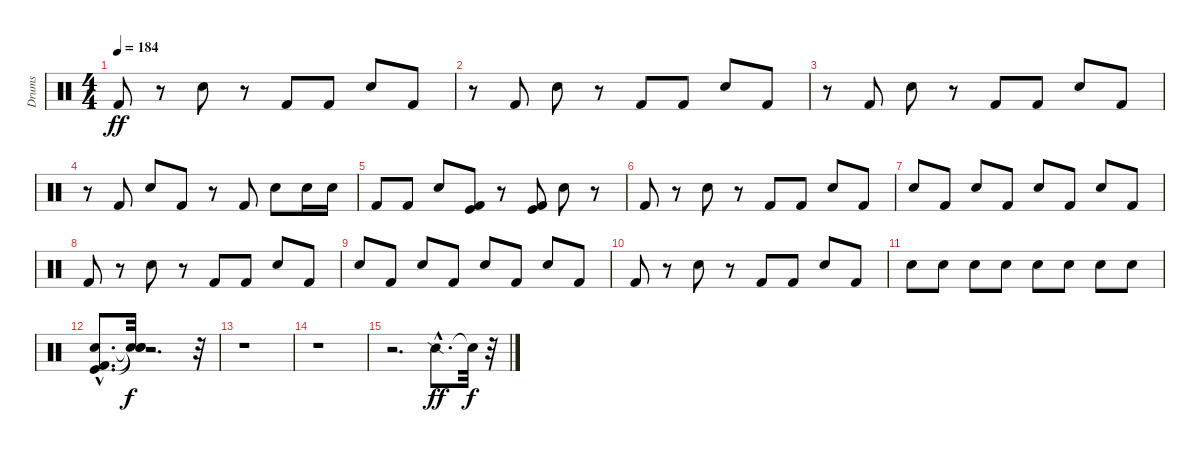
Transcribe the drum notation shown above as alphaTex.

\track ("Drums" "Drums") {instrument percussion}
\staff {score}
\articulation defaults
\ts (4 4)
\tempo 184
\clef neutral
\ks c "Kick (hit) 2".8{dy ff}
r.8 "Electric Snare (hit)".8 r.8 "Kick (hit) 2".8 "Kick (hit) 2".8 "Electric Snare (hit)".8 "Kick (hit) 2".8 |
r.8 "Kick (hit) 2".8 "Electric Snare (hit)".8 r.8 "Kick (hit) 2".8 "Kick (hit) 2".8 "Electric Snare (hit)".8 "Kick (hit) 2".8 |
r.8 "Kick (hit) 2".8 "Electric Snare (hit)".8 r.8 "Kick (hit) 2".8 "Kick (hit) 2".8 "Electric Snare (hit)".8 "Kick (hit) 2".8 |
r.8 "Kick (hit) 2".8 "Electric Snare (hit)".8 "Kick (hit) 2".8 r.8 "Kick (hit) 2".8 "Electric Snare (hit)".8 "Electric Snare (hit)".16 "Electric Snare (hit)".16 |
"Kick (hit) 2".8 "Kick (hit) 2".8 "Electric Snare (hit)".8 ("Kick (hit)" "Kick (hit) 2").8 r.8 ("Kick (hit)" "Kick (hit) 2").8 "Electric Snare (hit)".8 r.8 |
"Kick (hit) 2".8 r.8 "Electric Snare (hit)".8 r.8 "Kick (hit) 2".8 "Kick (hit) 2".8 "Electric Snare (hit)".8 "Kick (hit) 2".8 |
"Electric Snare (hit)".8 "Kick (hit) 2".8 "Electric Snare (hit)".8 "Kick (hit) 2".8 "Electric Snare (hit)".8 "Kick (hit) 2".8 "Electric Snare (hit)".8 "Kick (hit) 2".8 |
"Kick (hit) 2".8 r.8 "Electric Snare (hit)".8 r.8 "Kick (hit) 2".8 "Kick (hit) 2".8 "Electric Snare (hit)".8 "Kick (hit) 2".8 |
"Electric Snare (hit)".8 "Kick (hit) 2".8 "Electric Snare (hit)".8 "Kick (hit) 2".8 "Electric Snare (hit)".8 "Kick (hit) 2".8 "Electric Snare (hit)".8 "Kick (hit) 2".8 |
"Kick (hit) 2".8 r.8 "Electric Snare (hit)".8 r.8 "Kick (hit) 2".8 "Kick (hit) 2".8 "Electric Snare (hit)".8 "Kick (hit) 2".8 |
"Electric Snare (hit)".8 "Electric Snare (hit)".8 "Electric Snare (hit)".8 "Electric Snare (hit)".8 "Electric Snare (hit)".8 "Electric Snare (hit)".8 "Electric Snare (hit)".8 "Electric Snare (hit)".8 |
("Kick (hit)"{hac} "Kick (hit) 2"{hac} "Electric Snare (hit)"{hac}).8{d} ("Snare (hit)"{t} "Snare (hit)"{t} "Snare (hit)"{t}).32{dy f} r.2{d} r.32 |
r.1 |
r.1 |
r.2{d} "Snare (side stick) 2"{hac}.8{d dy ff} "Snare (hit)"{t}.32{dy f} r.32
